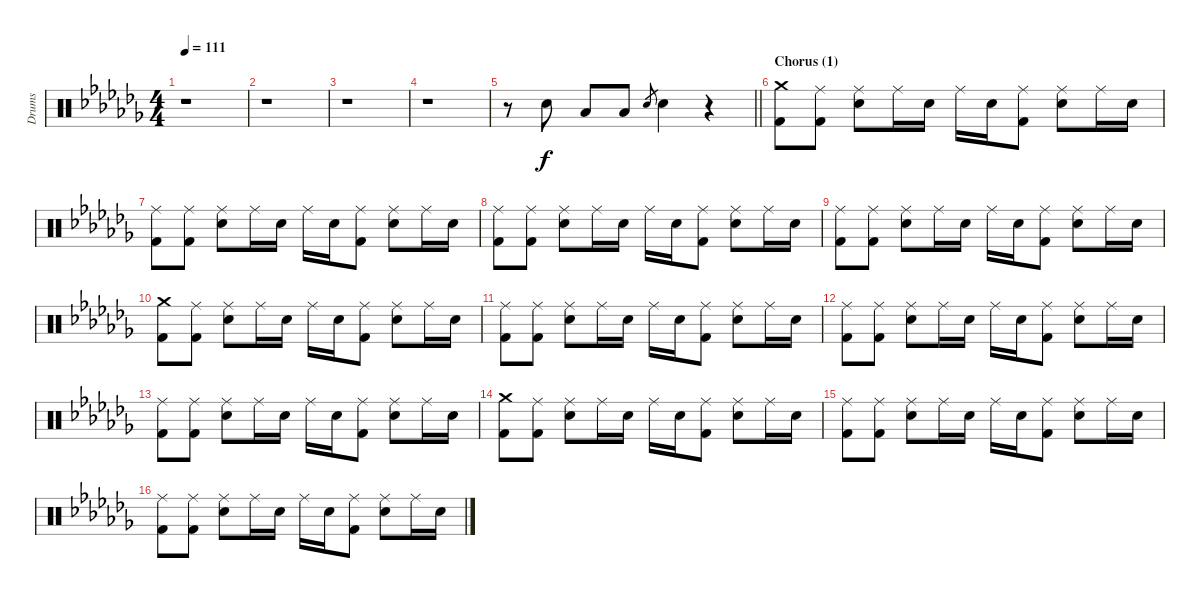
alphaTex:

\track ("Drums" "Drums") {instrument percussion}
\staff {score}
\articulation defaults
\ts (4 4)
\tempo 111
\clef neutral
\ks abminor
r.1{dy f} |
r.1 |
r.1 |
r.1 |
\barLineRight lightlight
r.8 "Electric Snare (hit)".8 "Low Tom (hit)".8 "Low Tom (hit)".8 "Electric Snare (hit)".8{gr} "Electric Snare (hit)".4 r.4 |
\section ("" "Chorus (1)")
("Crash medium (hit)" "Kick (hit) 2").8 ("Ride (middle)" "Kick (hit) 2").8 ("Ride (middle)" "Electric Snare (hit)").8 "Ride (middle)".16 "Electric Snare (hit)".16 "Ride (middle)".16 "Electric Snare (hit)".16 ("Ride (middle)" "Kick (hit) 2").8 ("Ride (middle)" "Electric Snare (hit)").8 "Ride (middle)".16 "Electric Snare (hit)".16 |
("Ride (middle)" "Kick (hit) 2").8 ("Ride (middle)" "Kick (hit) 2").8 ("Ride (middle)" "Electric Snare (hit)").8 "Ride (middle)".16 "Electric Snare (hit)".16 "Ride (middle)".16 "Electric Snare (hit)".16 ("Ride (middle)" "Kick (hit) 2").8 ("Ride (middle)" "Electric Snare (hit)").8 "Ride (middle)".16 "Electric Snare (hit)".16 |
("Ride (middle)" "Kick (hit) 2").8 ("Ride (middle)" "Kick (hit) 2").8 ("Ride (middle)" "Electric Snare (hit)").8 "Ride (middle)".16 "Electric Snare (hit)".16 "Ride (middle)".16 "Electric Snare (hit)".16 ("Ride (middle)" "Kick (hit) 2").8 ("Ride (middle)" "Electric Snare (hit)").8 "Ride (middle)".16 "Electric Snare (hit)".16 |
("Ride (middle)" "Kick (hit) 2").8 ("Ride (middle)" "Kick (hit) 2").8 ("Ride (middle)" "Electric Snare (hit)").8 "Ride (middle)".16 "Electric Snare (hit)".16 "Ride (middle)".16 "Electric Snare (hit)".16 ("Ride (middle)" "Kick (hit) 2").8 ("Ride (middle)" "Electric Snare (hit)").8 "Ride (middle)".16 "Electric Snare (hit)".16 |
("Crash medium (hit)" "Kick (hit) 2").8 ("Ride (middle)" "Kick (hit) 2").8 ("Ride (middle)" "Electric Snare (hit)").8 "Ride (middle)".16 "Electric Snare (hit)".16 "Ride (middle)".16 "Electric Snare (hit)".16 ("Ride (middle)" "Kick (hit) 2").8 ("Ride (middle)" "Electric Snare (hit)").8 "Ride (middle)".16 "Electric Snare (hit)".16 |
("Ride (middle)" "Kick (hit) 2").8 ("Ride (middle)" "Kick (hit) 2").8 ("Ride (middle)" "Electric Snare (hit)").8 "Ride (middle)".16 "Electric Snare (hit)".16 "Ride (middle)".16 "Electric Snare (hit)".16 ("Ride (middle)" "Kick (hit) 2").8 ("Ride (middle)" "Electric Snare (hit)").8 "Ride (middle)".16 "Electric Snare (hit)".16 |
("Ride (middle)" "Kick (hit) 2").8 ("Ride (middle)" "Kick (hit) 2").8 ("Ride (middle)" "Electric Snare (hit)").8 "Ride (middle)".16 "Electric Snare (hit)".16 "Ride (middle)".16 "Electric Snare (hit)".16 ("Ride (middle)" "Kick (hit) 2").8 ("Ride (middle)" "Electric Snare (hit)").8 "Ride (middle)".16 "Electric Snare (hit)".16 |
("Ride (middle)" "Kick (hit) 2").8 ("Ride (middle)" "Kick (hit) 2").8 ("Ride (middle)" "Electric Snare (hit)").8 "Ride (middle)".16 "Electric Snare (hit)".16 "Ride (middle)".16 "Electric Snare (hit)".16 ("Ride (middle)" "Kick (hit) 2").8 ("Ride (middle)" "Electric Snare (hit)").8 "Ride (middle)".16 "Electric Snare (hit)".16 |
("Crash medium (hit)" "Kick (hit) 2").8 ("Ride (middle)" "Kick (hit) 2").8 ("Ride (middle)" "Electric Snare (hit)").8 "Ride (middle)".16 "Electric Snare (hit)".16 "Ride (middle)".16 "Electric Snare (hit)".16 ("Ride (middle)" "Kick (hit) 2").8 ("Ride (middle)" "Electric Snare (hit)").8 "Ride (middle)".16 "Electric Snare (hit)".16 |
("Ride (middle)" "Kick (hit) 2").8 ("Ride (middle)" "Kick (hit) 2").8 ("Ride (middle)" "Electric Snare (hit)").8 "Ride (middle)".16 "Electric Snare (hit)".16 "Ride (middle)".16 "Electric Snare (hit)".16 ("Ride (middle)" "Kick (hit) 2").8 ("Ride (middle)" "Electric Snare (hit)").8 "Ride (middle)".16 "Electric Snare (hit)".16 |
("Ride (middle)" "Kick (hit) 2").8 ("Ride (middle)" "Kick (hit) 2").8 ("Ride (middle)" "Electric Snare (hit)").8 "Ride (middle)".16 "Electric Snare (hit)".16 "Ride (middle)".16 "Electric Snare (hit)".16 ("Ride (middle)" "Kick (hit) 2").8 ("Ride (middle)" "Electric Snare (hit)").8 "Ride (middle)".16 "Electric Snare (hit)".16
